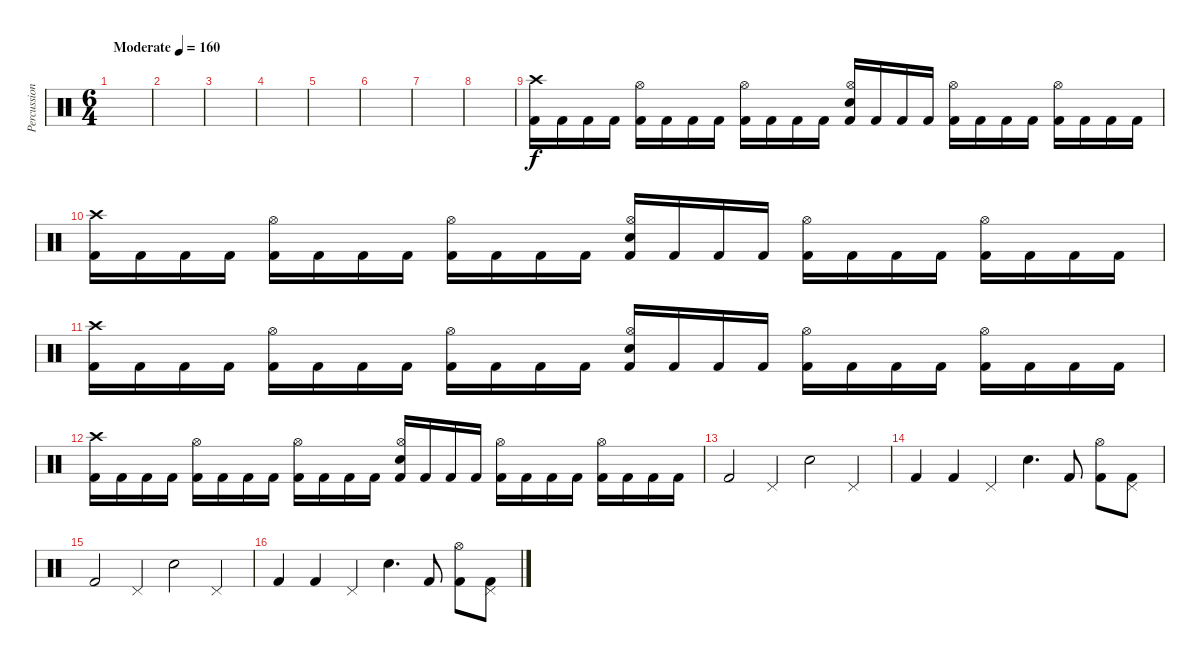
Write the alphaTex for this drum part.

\track ("Percussion" "Percussion") {instrument percussion}
\staff {score}
\articulation defaults
\ts (6 4)
\tempo (160 "Moderate")
\clef neutral
\ks c
|
|
|
|
|
|
|
|
("Crash high (hit)" "Kick (hit) 2").16 "Kick (hit) 2".16 "Kick (hit) 2".16 "Kick (hit) 2".16 ("Hi-Hat (open)" "Kick (hit) 2").16 "Kick (hit) 2".16 "Kick (hit) 2".16 "Kick (hit) 2".16 ("Hi-Hat (open)" "Kick (hit) 2").16 "Kick (hit) 2".16 "Kick (hit) 2".16 "Kick (hit) 2".16 ("Hi-Hat (open)" "Electric Snare (hit)" "Kick (hit) 2").16 "Kick (hit) 2".16 "Kick (hit) 2".16 "Kick (hit) 2".16 ("Hi-Hat (open)" "Kick (hit) 2").16 "Kick (hit) 2".16 "Kick (hit) 2".16 "Kick (hit) 2".16 ("Hi-Hat (open)" "Kick (hit) 2").16 "Kick (hit) 2".16 "Kick (hit) 2".16 "Kick (hit) 2".16 |
("Crash high (hit)" "Kick (hit) 2").16 "Kick (hit) 2".16 "Kick (hit) 2".16 "Kick (hit) 2".16 ("Hi-Hat (open)" "Kick (hit) 2").16 "Kick (hit) 2".16 "Kick (hit) 2".16 "Kick (hit) 2".16 ("Hi-Hat (open)" "Kick (hit) 2").16 "Kick (hit) 2".16 "Kick (hit) 2".16 "Kick (hit) 2".16 ("Hi-Hat (open)" "Electric Snare (hit)" "Kick (hit) 2").16 "Kick (hit) 2".16 "Kick (hit) 2".16 "Kick (hit) 2".16 ("Hi-Hat (open)" "Kick (hit) 2").16 "Kick (hit) 2".16 "Kick (hit) 2".16 "Kick (hit) 2".16 ("Hi-Hat (open)" "Kick (hit) 2").16 "Kick (hit) 2".16 "Kick (hit) 2".16 "Kick (hit) 2".16 |
("Crash high (hit)" "Kick (hit) 2").16 "Kick (hit) 2".16 "Kick (hit) 2".16 "Kick (hit) 2".16 ("Hi-Hat (open)" "Kick (hit) 2").16 "Kick (hit) 2".16 "Kick (hit) 2".16 "Kick (hit) 2".16 ("Hi-Hat (open)" "Kick (hit) 2").16 "Kick (hit) 2".16 "Kick (hit) 2".16 "Kick (hit) 2".16 ("Hi-Hat (open)" "Electric Snare (hit)" "Kick (hit) 2").16 "Kick (hit) 2".16 "Kick (hit) 2".16 "Kick (hit) 2".16 ("Hi-Hat (open)" "Kick (hit) 2").16 "Kick (hit) 2".16 "Kick (hit) 2".16 "Kick (hit) 2".16 ("Hi-Hat (open)" "Kick (hit) 2").16 "Kick (hit) 2".16 "Kick (hit) 2".16 "Kick (hit) 2".16 |
("Crash high (hit)" "Kick (hit) 2").16 "Kick (hit) 2".16 "Kick (hit) 2".16 "Kick (hit) 2".16 ("Hi-Hat (open)" "Kick (hit) 2").16 "Kick (hit) 2".16 "Kick (hit) 2".16 "Kick (hit) 2".16 ("Hi-Hat (open)" "Kick (hit) 2").16 "Kick (hit) 2".16 "Kick (hit) 2".16 "Kick (hit) 2".16 ("Hi-Hat (open)" "Electric Snare (hit)" "Kick (hit) 2").16 "Kick (hit) 2".16 "Kick (hit) 2".16 "Kick (hit) 2".16 ("Hi-Hat (open)" "Kick (hit) 2").16 "Kick (hit) 2".16 "Kick (hit) 2".16 "Kick (hit) 2".16 ("Hi-Hat (open)" "Kick (hit) 2").16 "Kick (hit) 2".16 "Kick (hit) 2".16 "Kick (hit) 2".16 |
"Kick (hit) 2".2 "Pedal Hi-Hat (hit)".4 "Electric Snare (hit)".2 "Pedal Hi-Hat (hit)".4 |
"Kick (hit) 2".4 "Kick (hit) 2".4 "Pedal Hi-Hat (hit)".4 "Electric Snare (hit)".4{d} "Kick (hit) 2".8 ("Hi-Hat (open)" "Kick (hit) 2").8 ("Pedal Hi-Hat (hit)" "Kick (hit) 2").8 |
"Kick (hit) 2".2 "Pedal Hi-Hat (hit)".4 "Electric Snare (hit)".2 "Pedal Hi-Hat (hit)".4 |
"Kick (hit) 2".4 "Kick (hit) 2".4 "Pedal Hi-Hat (hit)".4 "Electric Snare (hit)".4{d} "Kick (hit) 2".8 ("Hi-Hat (open)" "Kick (hit) 2").8 ("Pedal Hi-Hat (hit)" "Kick (hit) 2").8
